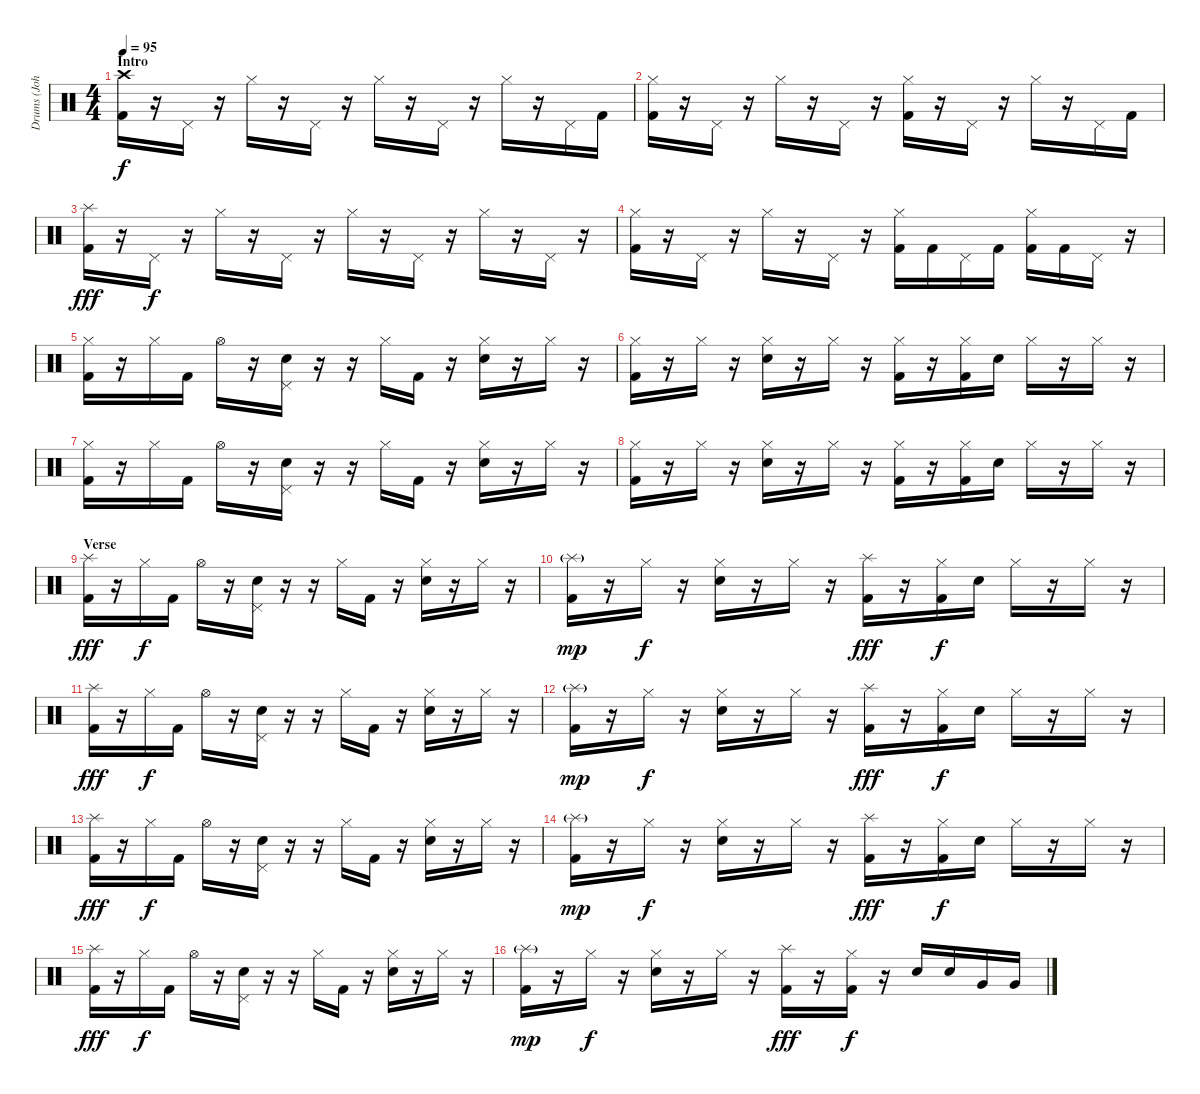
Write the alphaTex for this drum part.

\track ("Drums (John Otto)" "Drums (Joh") {instrument percussion}
\staff {score}
\articulation defaults
\ts (4 4)
\section ("" "Intro")
\tempo 95
\clef neutral
\ks c
("Crash high (hit)" "Kick (hit) 2").16{dy f} r.16 "Pedal Hi-Hat (hit)".16 r.16 "Hi-Hat (closed)".16 r.16 "Pedal Hi-Hat (hit)".16 r.16 "Hi-Hat (closed)".16 r.16 "Pedal Hi-Hat (hit)".16 r.16 "Hi-Hat (closed)".16 r.16 "Pedal Hi-Hat (hit)".16 "Kick (hit) 2".16 |
("Hi-Hat (closed)" "Kick (hit) 2").16 r.16 "Pedal Hi-Hat (hit)".16 r.16 "Hi-Hat (closed)".16 r.16 "Pedal Hi-Hat (hit)".16 r.16 ("Hi-Hat (closed)" "Kick (hit) 2").16 r.16 "Pedal Hi-Hat (hit)".16 r.16 "Hi-Hat (closed)".16 r.16 "Pedal Hi-Hat (hit)".16 "Kick (hit) 2".16 |
("Splash (hit)" "Kick (hit) 2").16{dy fff} r.16 "Pedal Hi-Hat (hit)".16{dy f} r.16 "Hi-Hat (closed)".16 r.16 "Pedal Hi-Hat (hit)".16 r.16 "Hi-Hat (closed)".16 r.16 "Pedal Hi-Hat (hit)".16 r.16 "Hi-Hat (closed)".16 r.16 "Pedal Hi-Hat (hit)".16 r.16 |
("Hi-Hat (closed)" "Kick (hit) 2").16 r.16 "Pedal Hi-Hat (hit)".16 r.16 "Hi-Hat (closed)".16 r.16 "Pedal Hi-Hat (hit)".16 r.16 ("Hi-Hat (closed)" "Kick (hit) 2").16 "Kick (hit) 2".16 "Pedal Hi-Hat (hit)".16 "Kick (hit) 2".16 ("Hi-Hat (closed)" "Kick (hit) 2").16 "Kick (hit) 2".16 "Pedal Hi-Hat (hit)".16 r.16 |
("Hi-Hat (closed)" "Kick (hit) 2").16 r.16 "Hi-Hat (closed)".16 "Kick (hit) 2".16 "Hi-Hat (open)".16 r.16 ("Pedal Hi-Hat (hit)" "Electric Snare (hit)").16 r.16 r.16 "Hi-Hat (closed)".16 "Kick (hit) 2".16 r.16 ("Hi-Hat (closed)" "Electric Snare (hit)").16 r.16 "Hi-Hat (closed)".16 r.16 |
("Hi-Hat (closed)" "Kick (hit) 2").16 r.16 "Hi-Hat (closed)".16 r.16 ("Hi-Hat (closed)" "Electric Snare (hit)").16 r.16 "Hi-Hat (closed)".16 r.16 ("Hi-Hat (closed)" "Kick (hit) 2").16 r.16 ("Hi-Hat (closed)" "Kick (hit) 2").16 "Electric Snare (hit)".16 "Hi-Hat (closed)".16 r.16 "Hi-Hat (closed)".16 r.16 |
("Hi-Hat (closed)" "Kick (hit) 2").16 r.16 "Hi-Hat (closed)".16 "Kick (hit) 2".16 "Hi-Hat (open)".16 r.16 ("Pedal Hi-Hat (hit)" "Electric Snare (hit)").16 r.16 r.16 "Hi-Hat (closed)".16 "Kick (hit) 2".16 r.16 ("Hi-Hat (closed)" "Electric Snare (hit)").16 r.16 "Hi-Hat (closed)".16 r.16 |
("Hi-Hat (closed)" "Kick (hit) 2").16 r.16 "Hi-Hat (closed)".16 r.16 ("Hi-Hat (closed)" "Electric Snare (hit)").16 r.16 "Hi-Hat (closed)".16 r.16 ("Hi-Hat (closed)" "Kick (hit) 2").16 r.16 ("Hi-Hat (closed)" "Kick (hit) 2").16 "Electric Snare (hit)".16 "Hi-Hat (closed)".16 r.16 "Hi-Hat (closed)".16 r.16 |
\section ("" "Verse")
("Splash (hit)" "Kick (hit) 2").16{dy fff} r.16 "Hi-Hat (closed)".16{dy f} "Kick (hit) 2".16 "Hi-Hat (open)".16 r.16 ("Pedal Hi-Hat (hit)" "Electric Snare (hit)").16 r.16 r.16 "Hi-Hat (closed)".16 "Kick (hit) 2".16 r.16 ("Hi-Hat (closed)" "Electric Snare (hit)").16 r.16 "Hi-Hat (closed)".16 r.16 |
("Splash (hit)"{g} "Kick (hit) 2").16{dy mp} r.16 "Hi-Hat (closed)".16{dy f} r.16 ("Hi-Hat (closed)" "Electric Snare (hit)").16 r.16 "Hi-Hat (closed)".16 r.16 ("Splash (hit)" "Kick (hit) 2").16{dy fff} r.16 ("Hi-Hat (closed)" "Kick (hit) 2").16{dy f} "Electric Snare (hit)".16 "Hi-Hat (closed)".16 r.16 "Hi-Hat (closed)".16 r.16 |
("Splash (hit)" "Kick (hit) 2").16{dy fff} r.16 "Hi-Hat (closed)".16{dy f} "Kick (hit) 2".16 "Hi-Hat (open)".16 r.16 ("Pedal Hi-Hat (hit)" "Electric Snare (hit)").16 r.16 r.16 "Hi-Hat (closed)".16 "Kick (hit) 2".16 r.16 ("Hi-Hat (closed)" "Electric Snare (hit)").16 r.16 "Hi-Hat (closed)".16 r.16 |
("Splash (hit)"{g} "Kick (hit) 2").16{dy mp} r.16 "Hi-Hat (closed)".16{dy f} r.16 ("Hi-Hat (closed)" "Electric Snare (hit)").16 r.16 "Hi-Hat (closed)".16 r.16 ("Splash (hit)" "Kick (hit) 2").16{dy fff} r.16 ("Hi-Hat (closed)" "Kick (hit) 2").16{dy f} "Electric Snare (hit)".16 "Hi-Hat (closed)".16 r.16 "Hi-Hat (closed)".16 r.16 |
("Splash (hit)" "Kick (hit) 2").16{dy fff} r.16 "Hi-Hat (closed)".16{dy f} "Kick (hit) 2".16 "Hi-Hat (open)".16 r.16 ("Pedal Hi-Hat (hit)" "Electric Snare (hit)").16 r.16 r.16 "Hi-Hat (closed)".16 "Kick (hit) 2".16 r.16 ("Hi-Hat (closed)" "Electric Snare (hit)").16 r.16 "Hi-Hat (closed)".16 r.16 |
("Splash (hit)"{g} "Kick (hit) 2").16{dy mp} r.16 "Hi-Hat (closed)".16{dy f} r.16 ("Hi-Hat (closed)" "Electric Snare (hit)").16 r.16 "Hi-Hat (closed)".16 r.16 ("Splash (hit)" "Kick (hit) 2").16{dy fff} r.16 ("Hi-Hat (closed)" "Kick (hit) 2").16{dy f} "Electric Snare (hit)".16 "Hi-Hat (closed)".16 r.16 "Hi-Hat (closed)".16 r.16 |
("Splash (hit)" "Kick (hit) 2").16{dy fff} r.16 "Hi-Hat (closed)".16{dy f} "Kick (hit) 2".16 "Hi-Hat (open)".16 r.16 ("Pedal Hi-Hat (hit)" "Electric Snare (hit)").16 r.16 r.16 "Hi-Hat (closed)".16 "Kick (hit) 2".16 r.16 ("Hi-Hat (closed)" "Electric Snare (hit)").16 r.16 "Hi-Hat (closed)".16 r.16 |
("Splash (hit)"{g} "Kick (hit) 2").16{dy mp} r.16 "Hi-Hat (closed)".16{dy f} r.16 ("Hi-Hat (closed)" "Electric Snare (hit)").16 r.16 "Hi-Hat (closed)".16 r.16 ("Splash (hit)" "Kick (hit) 2").16{dy fff} r.16 ("Hi-Hat (closed)" "Kick (hit) 2").16{dy f} r.16 "Electric Snare (hit)".16 "Electric Snare (hit)".16 "Very Low Tom (hit)".16 "Very Low Tom (hit)".16
